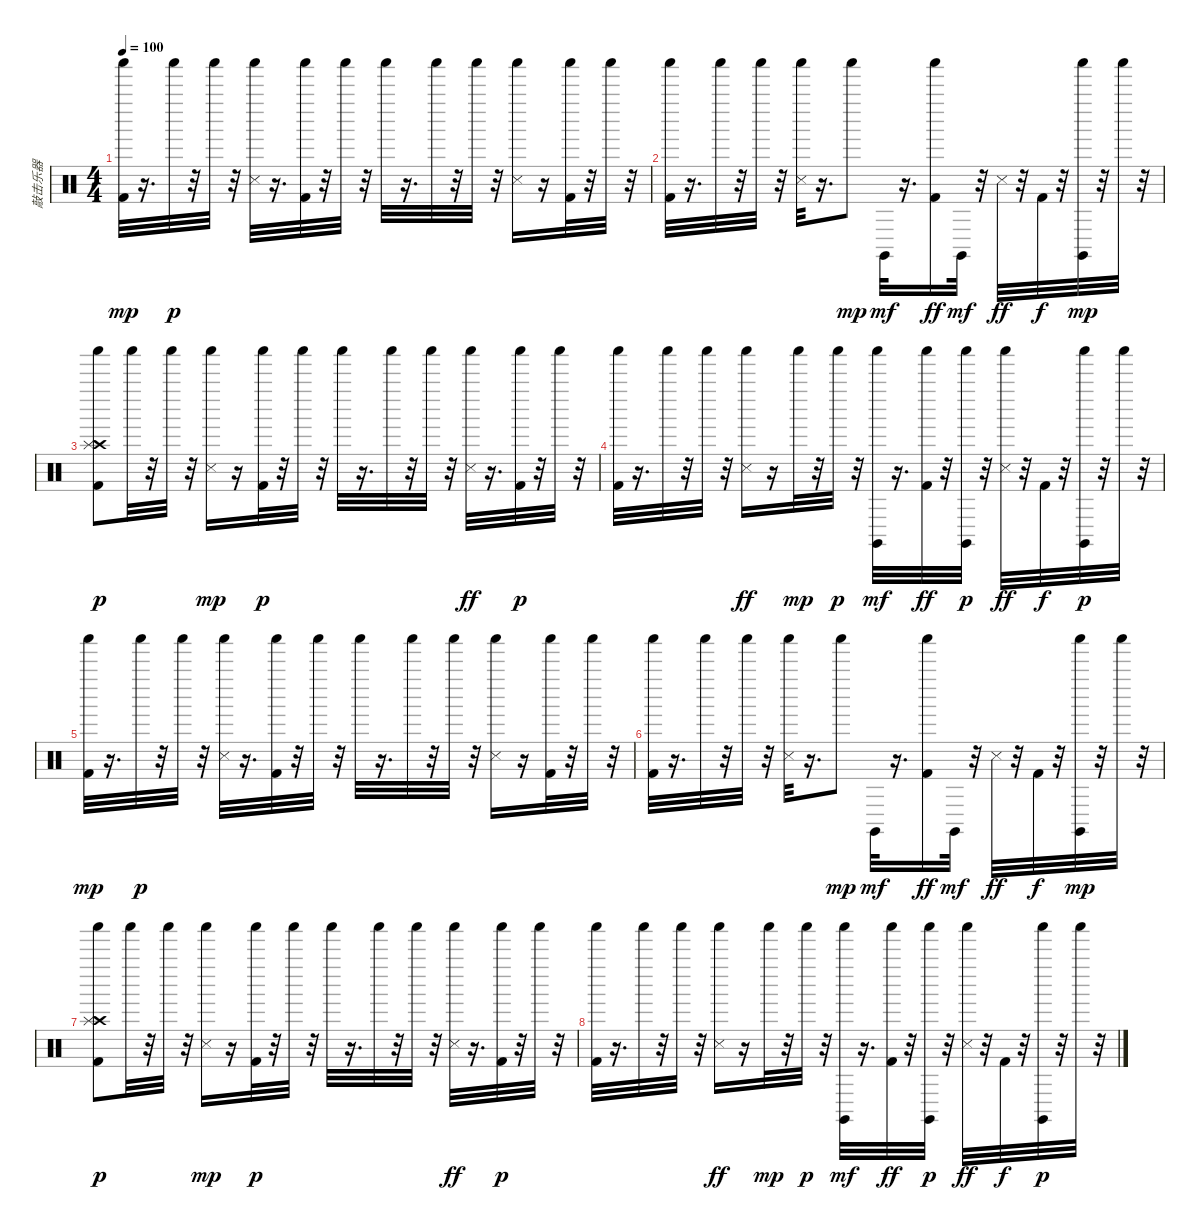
\track ("敲击乐器" "敲击乐器") {instrument percussion}
\staff {score}
\articulation defaults
\ts (4 4)
\tempo 100
\clef neutral
\ks c
("Kick (hit) 2" "Shaker (hit)").32{dy mp} r.16{d} "Shaker (hit)".32{dy p} r.32 "Shaker (hit)".32 r.32 ("Snare (side stick) 3" "Shaker (hit)").32 r.16{d} ("Kick (hit) 2" "Shaker (hit)").32 r.32 "Shaker (hit)".32 r.32 "Shaker (hit)".32 r.16{d} "Shaker (hit)".32 r.32 "Shaker (hit)".32 r.32 ("Snare (side stick) 3" "Shaker (hit)").16 r.16 ("Kick (hit) 2" "Shaker (hit)").32 r.32 "Shaker (hit)".32 r.32 |
("Shaker (hit)" "Kick (hit) 2").32 r.16{d} "Shaker (hit)".32 r.32 "Shaker (hit)".32 r.32 ("Snare (side stick) 3" "Shaker (hit)").32 r.16{d} "Shaker (hit)".8{dy mp} "Claves (hit)".32{dy mf} r.16{d} ("Shaker (hit)" "Kick (hit) 2").16{dy ff} "Claves (hit)".32{dy mf} r.32 "Snare (side stick) 3".32{dy ff} r.32 "Kick (hit) 2".32{dy f} r.32 ("Claves (hit)" "Shaker (hit)").32{dy mp} r.32 "Shaker (hit)".32 r.32 |
("Crash high (hit)" "Splash (hit)" "Shaker (hit)" "Kick (hit) 2").8{dy p} "Shaker (hit)".32 r.32 "Shaker (hit)".32 r.32 ("Shaker (hit)" "Snare (side stick) 3").16{dy mp} r.16 ("Kick (hit) 2" "Shaker (hit)").32{dy p} r.32 "Shaker (hit)".32 r.32 "Shaker (hit)".32 r.16{d} "Shaker (hit)".32 r.32 "Shaker (hit)".32 r.32 ("Shaker (hit)" "Snare (side stick) 3").32{dy ff} r.16{d} ("Kick (hit) 2" "Shaker (hit)").32{dy p} r.32 "Shaker (hit)".32 r.32 |
("Shaker (hit)" "Kick (hit) 2").32 r.16{d} "Shaker (hit)".32 r.32 "Shaker (hit)".32 r.32 ("Shaker (hit)" "Snare (side stick) 3").16{dy ff} r.16 "Shaker (hit)".32{dy mp} r.32 "Shaker (hit)".32{dy p} r.32 ("Shaker (hit)" "Claves (hit)").32{dy mf} r.16{d} ("Shaker (hit)" "Kick (hit) 2").32{dy ff} r.32 ("Claves (hit)" "Shaker (hit)").32{dy p} r.32 ("Shaker (hit)" "Snare (side stick) 3").32{dy ff} r.32 "Kick (hit) 2".32{dy f} r.32 ("Claves (hit)" "Shaker (hit)").32{dy p} r.32 "Shaker (hit)".32 r.32 |
("Kick (hit) 2" "Shaker (hit)").32{dy mp} r.16{d} "Shaker (hit)".32{dy p} r.32 "Shaker (hit)".32 r.32 ("Snare (side stick) 3" "Shaker (hit)").32 r.16{d} ("Kick (hit) 2" "Shaker (hit)").32 r.32 "Shaker (hit)".32 r.32 "Shaker (hit)".32 r.16{d} "Shaker (hit)".32 r.32 "Shaker (hit)".32 r.32 ("Snare (side stick) 3" "Shaker (hit)").16 r.16 ("Kick (hit) 2" "Shaker (hit)").32 r.32 "Shaker (hit)".32 r.32 |
("Shaker (hit)" "Kick (hit) 2").32 r.16{d} "Shaker (hit)".32 r.32 "Shaker (hit)".32 r.32 ("Snare (side stick) 3" "Shaker (hit)").32 r.16{d} "Shaker (hit)".8{dy mp} "Claves (hit)".32{dy mf} r.16{d} ("Shaker (hit)" "Kick (hit) 2").16{dy ff} "Claves (hit)".32{dy mf} r.32 "Snare (side stick) 3".32{dy ff} r.32 "Kick (hit) 2".32{dy f} r.32 ("Claves (hit)" "Shaker (hit)").32{dy mp} r.32 "Shaker (hit)".32 r.32 |
("Crash high (hit)" "Splash (hit)" "Shaker (hit)" "Kick (hit) 2").8{dy p} "Shaker (hit)".32 r.32 "Shaker (hit)".32 r.32 ("Shaker (hit)" "Snare (side stick) 3").16{dy mp} r.16 ("Kick (hit) 2" "Shaker (hit)").32{dy p} r.32 "Shaker (hit)".32 r.32 "Shaker (hit)".32 r.16{d} "Shaker (hit)".32 r.32 "Shaker (hit)".32 r.32 ("Shaker (hit)" "Snare (side stick) 3").32{dy ff} r.16{d} ("Kick (hit) 2" "Shaker (hit)").32{dy p} r.32 "Shaker (hit)".32 r.32 |
("Shaker (hit)" "Kick (hit) 2").32 r.16{d} "Shaker (hit)".32 r.32 "Shaker (hit)".32 r.32 ("Shaker (hit)" "Snare (side stick) 3").16{dy ff} r.16 "Shaker (hit)".32{dy mp} r.32 "Shaker (hit)".32{dy p} r.32 ("Shaker (hit)" "Claves (hit)").32{dy mf} r.16{d} ("Shaker (hit)" "Kick (hit) 2").32{dy ff} r.32 ("Claves (hit)" "Shaker (hit)").32{dy p} r.32 ("Shaker (hit)" "Snare (side stick) 3").32{dy ff} r.32 "Kick (hit) 2".32{dy f} r.32 ("Claves (hit)" "Shaker (hit)").32{dy p} r.32 "Shaker (hit)".32 r.32
